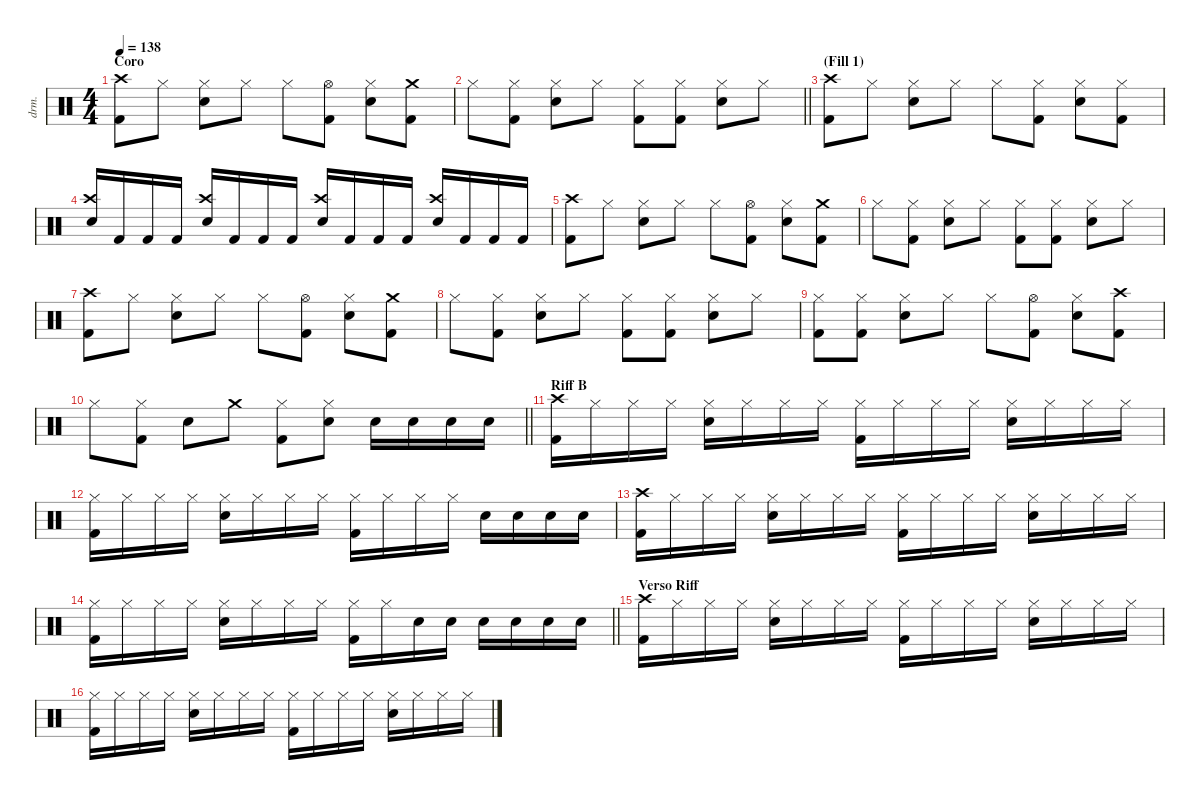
\defaultSystemsLayout 4
\hideDynamics
\bracketExtendMode nobrackets
\otherSystemsTrackNameOrientation horizontal
\track ("Lee Kerslake" "drm.") {instrument percussion}
\staff {score}
\articulation defaults
\ts (4 4)
\section ("" "Coro")
\tempo 138
\clef neutral
\ks c
("Crash high (hit)" "Kick (hit) 2").8{dy f beam Down} "Hi-Hat (closed)".8{beam Down} ("Hi-Hat (closed)" "Snare (hit) 2").8{beam Down} "Hi-Hat (closed)".8{beam Down} "Hi-Hat (closed)".8{beam Down} ("Hi-Hat (open)" "Kick (hit) 2").8{beam Down} ("Hi-Hat (closed)" "Snare (hit) 2").8{beam Down} ("Crash medium (hit)" "Kick (hit) 2").8{beam Down} |
\barLineRight lightlight "Hi-Hat (closed)".8{beam Down}
("Hi-Hat (closed)" "Kick (hit) 2").8{beam Down} ("Hi-Hat (closed)" "Snare (hit) 2").8{beam Down} "Hi-Hat (closed)".8{beam Down} ("Hi-Hat (closed)" "Kick (hit) 2").8{beam Down} ("Hi-Hat (closed)" "Kick (hit) 2").8{beam Down} ("Hi-Hat (closed)" "Snare (hit) 2").8{beam Down} "Hi-Hat (closed)".8{beam Down} |
\section ("" "(Fill 1)")
("Crash high (hit)" "Kick (hit) 2").8{beam Down} "Hi-Hat (closed)".8{beam Down} ("Hi-Hat (closed)" "Snare (hit) 2").8{beam Down} "Hi-Hat (closed)".8{beam Down} "Hi-Hat (closed)".8{beam Down} ("Hi-Hat (closed)" "Kick (hit) 2").8{beam Down} ("Hi-Hat (closed)" "Snare (hit) 2").8{beam Down} ("Hi-Hat (closed)" "Kick (hit) 2").8{beam Down} |
("Snare (hit) 2" "Crash high (hit)").16{beam Up} "Kick (hit) 2".16{beam Up} "Kick (hit) 2".16{beam Up} "Kick (hit) 2".16{beam Up} ("Snare (hit) 2" "Crash high (hit)").16{beam Up} "Kick (hit) 2".16{beam Up} "Kick (hit) 2".16{beam Up} "Kick (hit) 2".16{beam Up} ("Snare (hit) 2" "Crash high (hit)").16{beam Up} "Kick (hit) 2".16{beam Up} "Kick (hit) 2".16{beam Up} "Kick (hit) 2".16{beam Up} ("Snare (hit) 2" "Crash high (hit)").16{beam Up} "Kick (hit) 2".16{beam Up} "Kick (hit) 2".16{beam Up} "Kick (hit) 2".16{beam Up} |
("Crash high (hit)" "Kick (hit) 2").8{beam Down} "Hi-Hat (closed)".8{beam Down} ("Hi-Hat (closed)" "Snare (hit) 2").8{beam Down} "Hi-Hat (closed)".8{beam Down} "Hi-Hat (closed)".8{beam Down} ("Hi-Hat (open)" "Kick (hit) 2").8{beam Down} ("Hi-Hat (closed)" "Snare (hit) 2").8{beam Down} ("Crash medium (hit)" "Kick (hit) 2").8{beam Down} |
"Hi-Hat (closed)".8{beam Down} ("Hi-Hat (closed)" "Kick (hit) 2").8{beam Down} ("Hi-Hat (closed)" "Snare (hit) 2").8{beam Down} "Hi-Hat (closed)".8{beam Down} ("Hi-Hat (closed)" "Kick (hit) 2").8{beam Down} ("Hi-Hat (closed)" "Kick (hit) 2").8{beam Down} ("Hi-Hat (closed)" "Snare (hit) 2").8{beam Down} "Hi-Hat (closed)".8{beam Down} |
("Crash high (hit)" "Kick (hit) 2").8{beam Down} "Hi-Hat (closed)".8{beam Down} ("Hi-Hat (closed)" "Snare (hit) 2").8{beam Down} "Hi-Hat (closed)".8{beam Down} "Hi-Hat (closed)".8{beam Down} ("Hi-Hat (open)" "Kick (hit) 2").8{beam Down} ("Hi-Hat (closed)" "Snare (hit) 2").8{beam Down} ("Crash medium (hit)" "Kick (hit) 2").8{beam Down} |
"Hi-Hat (closed)".8{beam Down} ("Hi-Hat (closed)" "Kick (hit) 2").8{beam Down} ("Hi-Hat (closed)" "Snare (hit) 2").8{beam Down} "Hi-Hat (closed)".8{beam Down} ("Hi-Hat (closed)" "Kick (hit) 2").8{beam Down} ("Hi-Hat (closed)" "Kick (hit) 2").8{beam Down} ("Hi-Hat (closed)" "Snare (hit) 2").8{beam Down} "Hi-Hat (closed)".8{beam Down} |
("Hi-Hat (closed)" "Kick (hit) 2").8{beam Down} ("Hi-Hat (closed)" "Kick (hit) 2").8{beam Down} ("Hi-Hat (closed)" "Snare (hit) 2").8{beam Down} "Hi-Hat (closed)".8{beam Down} "Hi-Hat (closed)".8{beam Down} ("Hi-Hat (open)" "Kick (hit) 2").8{beam Down} ("Hi-Hat (closed)" "Snare (hit) 2").8{beam Down} ("Crash high (hit)" "Kick (hit) 2").8{beam Down} |
\barLineRight lightlight "Hi-Hat (closed)".8{beam Down}
("Hi-Hat (closed)" "Kick (hit) 2").8{beam Down} "Snare (hit) 2".8{beam Down} "Crash medium (hit)".8{beam Down} ("Hi-Hat (closed)" "Kick (hit) 2").8{beam Down} ("Hi-Hat (closed)" "Snare (hit) 2").8{beam Down} "Snare (hit) 2".16{beam Down} "Snare (hit) 2".16{beam Down} "Snare (hit) 2".16{beam Down} "Snare (hit) 2".16{beam Down} |
\section ("" "Riff B")
("Crash high (hit)" "Kick (hit) 2").16{beam Down} "Hi-Hat (closed)".16{beam Down} "Hi-Hat (closed)".16{beam Down} "Hi-Hat (closed)".16{beam Down} ("Hi-Hat (closed)" "Snare (hit) 2").16{beam Down} "Hi-Hat (closed)".16{beam Down} "Hi-Hat (closed)".16{beam Down} "Hi-Hat (closed)".16{beam Down} ("Hi-Hat (closed)" "Kick (hit) 2").16{beam Down} "Hi-Hat (closed)".16{beam Down} "Hi-Hat (closed)".16{beam Down} "Hi-Hat (closed)".16{beam Down} ("Hi-Hat (closed)" "Snare (hit) 2").16{beam Down} "Hi-Hat (closed)".16{beam Down} "Hi-Hat (closed)".16{beam Down} "Hi-Hat (closed)".16{beam Down} |
("Hi-Hat (closed)" "Kick (hit) 2").16{beam Down} "Hi-Hat (closed)".16{beam Down} "Hi-Hat (closed)".16{beam Down} "Hi-Hat (closed)".16{beam Down} ("Hi-Hat (closed)" "Snare (hit) 2").16{beam Down} "Hi-Hat (closed)".16{beam Down} "Hi-Hat (closed)".16{beam Down} "Hi-Hat (closed)".16{beam Down} ("Hi-Hat (closed)" "Kick (hit) 2").16{beam Down} "Hi-Hat (closed)".16{beam Down} "Hi-Hat (closed)".16{beam Down} "Hi-Hat (closed)".16{beam Down} "Snare (hit) 2".16{beam Down} "Snare (hit) 2".16{beam Down} "Snare (hit) 2".16{beam Down} "Snare (hit) 2".16{beam Down} |
("Crash high (hit)" "Kick (hit) 2").16{beam Down} "Hi-Hat (closed)".16{beam Down} "Hi-Hat (closed)".16{beam Down} "Hi-Hat (closed)".16{beam Down} ("Hi-Hat (closed)" "Snare (hit) 2").16{beam Down} "Hi-Hat (closed)".16{beam Down} "Hi-Hat (closed)".16{beam Down} "Hi-Hat (closed)".16{beam Down} ("Hi-Hat (closed)" "Kick (hit) 2").16{beam Down} "Hi-Hat (closed)".16{beam Down} "Hi-Hat (closed)".16{beam Down} "Hi-Hat (closed)".16{beam Down} ("Hi-Hat (closed)" "Snare (hit) 2").16{beam Down} "Hi-Hat (closed)".16{beam Down} "Hi-Hat (closed)".16{beam Down} "Hi-Hat (closed)".16{beam Down} |
\barLineRight lightlight
("Hi-Hat (closed)" "Kick (hit) 2").16{beam Down} "Hi-Hat (closed)".16{beam Down} "Hi-Hat (closed)".16{beam Down} "Hi-Hat (closed)".16{beam Down} ("Hi-Hat (closed)" "Snare (hit) 2").16{beam Down} "Hi-Hat (closed)".16{beam Down} "Hi-Hat (closed)".16{beam Down} "Hi-Hat (closed)".16{beam Down} ("Hi-Hat (closed)" "Kick (hit) 2").16{beam Down} "Hi-Hat (closed)".16{beam Down} "Snare (hit) 2".16{beam Down} "Snare (hit) 2".16{beam Down} "Snare (hit) 2".16{beam Down} "Snare (hit) 2".16{beam Down} "Snare (hit) 2".16{beam Down} "Snare (hit) 2".16{beam Down} |
\section ("" "Verso Riff")
("Crash high (hit)" "Kick (hit) 2").16{beam Down} "Hi-Hat (closed)".16{beam Down} "Hi-Hat (closed)".16{beam Down} "Hi-Hat (closed)".16{beam Down} ("Hi-Hat (closed)" "Snare (hit) 2").16{beam Down} "Hi-Hat (closed)".16{beam Down} "Hi-Hat (closed)".16{beam Down} "Hi-Hat (closed)".16{beam Down} ("Hi-Hat (closed)" "Kick (hit) 2").16{beam Down} "Hi-Hat (closed)".16{beam Down} "Hi-Hat (closed)".16{beam Down} "Hi-Hat (closed)".16{beam Down} ("Hi-Hat (closed)" "Snare (hit) 2").16{beam Down} "Hi-Hat (closed)".16{beam Down} "Hi-Hat (closed)".16{beam Down} "Hi-Hat (closed)".16{beam Down} |
("Hi-Hat (closed)" "Kick (hit) 2").16{beam Down} "Hi-Hat (closed)".16{beam Down} "Hi-Hat (closed)".16{beam Down} "Hi-Hat (closed)".16{beam Down} ("Hi-Hat (closed)" "Snare (hit) 2").16{beam Down} "Hi-Hat (closed)".16{beam Down} "Hi-Hat (closed)".16{beam Down} "Hi-Hat (closed)".16{beam Down} ("Hi-Hat (closed)" "Kick (hit) 2").16{beam Down} "Hi-Hat (closed)".16{beam Down} "Hi-Hat (closed)".16{beam Down} "Hi-Hat (closed)".16{beam Down} ("Hi-Hat (closed)" "Snare (hit) 2").16{beam Down} "Hi-Hat (closed)".16{beam Down} "Hi-Hat (closed)".16{beam Down} "Hi-Hat (closed)".16{beam Down}
